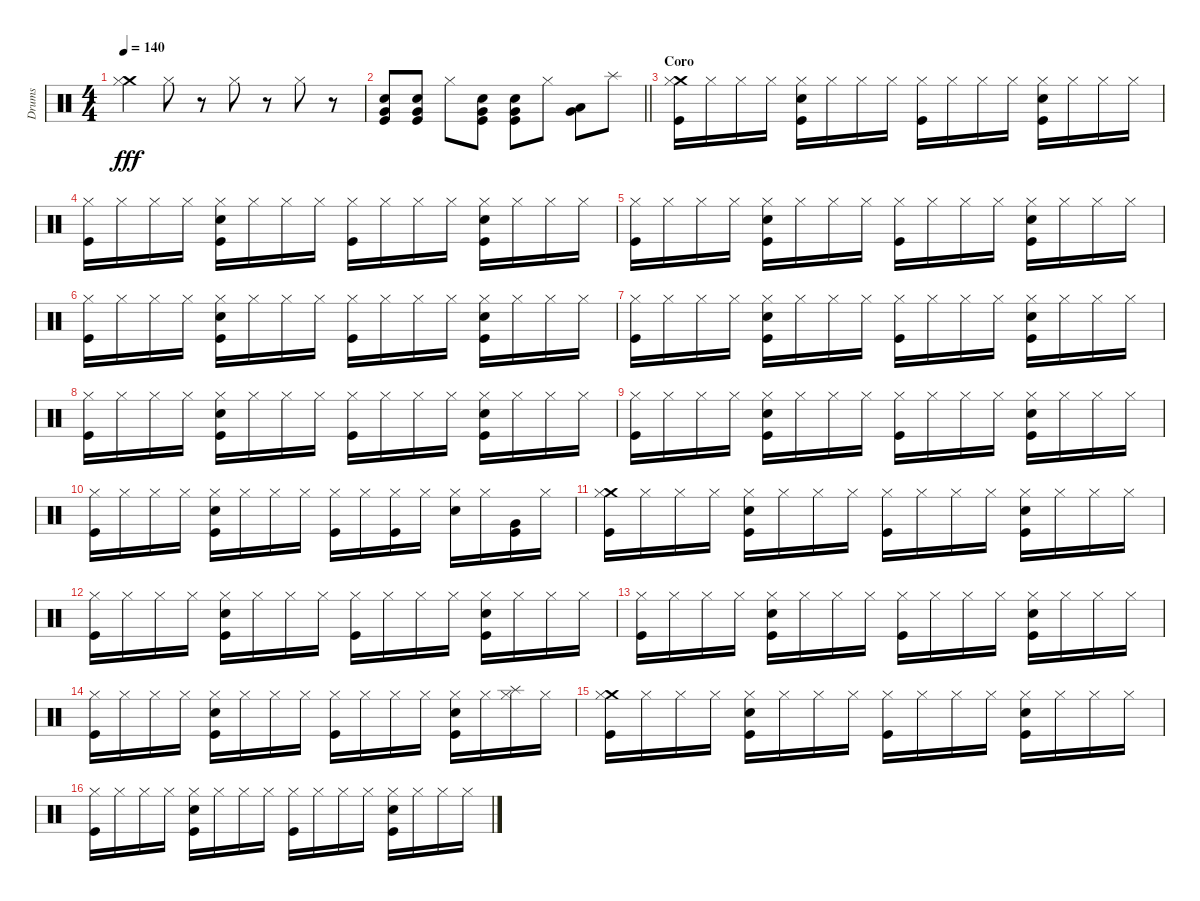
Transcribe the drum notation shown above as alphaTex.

\track ("Drums" "Drums") {instrument percussion}
\staff {score}
\articulation defaults
\ts (4 4)
\tempo 140
\clef neutral
\ks c
("Crash medium (hit)" "Hi-Hat (closed)").4{dy fff} "Hi-Hat (closed)".8 r.8 "Hi-Hat (closed)".8 r.8 "Hi-Hat (closed)".8 r.8 |
\barLineRight lightlight
("Very Low Tom (hit)" "Electric Snare (hit)" "Kick (hit)").8 ("Very Low Tom (hit)" "Electric Snare (hit)" "Kick (hit)").8 "Hi-Hat (closed)".8 ("Very Low Tom (hit)" "Electric Snare (hit)" "Kick (hit)").8 ("Very Low Tom (hit)" "Electric Snare (hit)" "Kick (hit)").8 "Hi-Hat (closed)".8 ("Low Tom (hit)" "Very Low Tom (hit)").8 "Splash (hit)".8 |
\section ("" "Coro")
("Crash medium (hit)" "Hi-Hat (closed)" "Kick (hit)").16 "Hi-Hat (closed)".16 "Hi-Hat (closed)".16 "Hi-Hat (closed)".16 ("Hi-Hat (closed)" "Electric Snare (hit)" "Kick (hit)").16 "Hi-Hat (closed)".16 "Hi-Hat (closed)".16 "Hi-Hat (closed)".16 ("Hi-Hat (closed)" "Kick (hit)").16 "Hi-Hat (closed)".16 "Hi-Hat (closed)".16 "Hi-Hat (closed)".16 ("Hi-Hat (closed)" "Electric Snare (hit)" "Kick (hit)").16 "Hi-Hat (closed)".16 "Hi-Hat (closed)".16 "Hi-Hat (closed)".16 |
("Hi-Hat (closed)" "Kick (hit)").16 "Hi-Hat (closed)".16 "Hi-Hat (closed)".16 "Hi-Hat (closed)".16 ("Hi-Hat (closed)" "Electric Snare (hit)" "Kick (hit)").16 "Hi-Hat (closed)".16 "Hi-Hat (closed)".16 "Hi-Hat (closed)".16 ("Hi-Hat (closed)" "Kick (hit)").16 "Hi-Hat (closed)".16 "Hi-Hat (closed)".16 "Hi-Hat (closed)".16 ("Hi-Hat (closed)" "Electric Snare (hit)" "Kick (hit)").16 "Hi-Hat (closed)".16 "Hi-Hat (closed)".16 "Hi-Hat (closed)".16 |
("Hi-Hat (closed)" "Kick (hit)").16 "Hi-Hat (closed)".16 "Hi-Hat (closed)".16 "Hi-Hat (closed)".16 ("Hi-Hat (closed)" "Electric Snare (hit)" "Kick (hit)").16 "Hi-Hat (closed)".16 "Hi-Hat (closed)".16 "Hi-Hat (closed)".16 ("Hi-Hat (closed)" "Kick (hit)").16 "Hi-Hat (closed)".16 "Hi-Hat (closed)".16 "Hi-Hat (closed)".16 ("Hi-Hat (closed)" "Electric Snare (hit)" "Kick (hit)").16 "Hi-Hat (closed)".16 "Hi-Hat (closed)".16 "Hi-Hat (closed)".16 |
("Hi-Hat (closed)" "Kick (hit)").16 "Hi-Hat (closed)".16 "Hi-Hat (closed)".16 "Hi-Hat (closed)".16 ("Hi-Hat (closed)" "Electric Snare (hit)" "Kick (hit)").16 "Hi-Hat (closed)".16 "Hi-Hat (closed)".16 "Hi-Hat (closed)".16 ("Hi-Hat (closed)" "Kick (hit)").16 "Hi-Hat (closed)".16 "Hi-Hat (closed)".16 "Hi-Hat (closed)".16 ("Hi-Hat (closed)" "Electric Snare (hit)" "Kick (hit)").16 "Hi-Hat (closed)".16 "Hi-Hat (closed)".16 "Hi-Hat (closed)".16 |
("Hi-Hat (closed)" "Kick (hit)").16 "Hi-Hat (closed)".16 "Hi-Hat (closed)".16 "Hi-Hat (closed)".16 ("Hi-Hat (closed)" "Electric Snare (hit)" "Kick (hit)").16 "Hi-Hat (closed)".16 "Hi-Hat (closed)".16 "Hi-Hat (closed)".16 ("Hi-Hat (closed)" "Kick (hit)").16 "Hi-Hat (closed)".16 "Hi-Hat (closed)".16 "Hi-Hat (closed)".16 ("Hi-Hat (closed)" "Electric Snare (hit)" "Kick (hit)").16 "Hi-Hat (closed)".16 "Hi-Hat (closed)".16 "Hi-Hat (closed)".16 |
("Hi-Hat (closed)" "Kick (hit)").16 "Hi-Hat (closed)".16 "Hi-Hat (closed)".16 "Hi-Hat (closed)".16 ("Hi-Hat (closed)" "Electric Snare (hit)" "Kick (hit)").16 "Hi-Hat (closed)".16 "Hi-Hat (closed)".16 "Hi-Hat (closed)".16 ("Hi-Hat (closed)" "Kick (hit)").16 "Hi-Hat (closed)".16 "Hi-Hat (closed)".16 "Hi-Hat (closed)".16 ("Hi-Hat (closed)" "Electric Snare (hit)" "Kick (hit)").16 "Hi-Hat (closed)".16 "Hi-Hat (closed)".16 "Hi-Hat (closed)".16 |
("Hi-Hat (closed)" "Kick (hit)").16 "Hi-Hat (closed)".16 "Hi-Hat (closed)".16 "Hi-Hat (closed)".16 ("Hi-Hat (closed)" "Electric Snare (hit)" "Kick (hit)").16 "Hi-Hat (closed)".16 "Hi-Hat (closed)".16 "Hi-Hat (closed)".16 ("Hi-Hat (closed)" "Kick (hit)").16 "Hi-Hat (closed)".16 "Hi-Hat (closed)".16 "Hi-Hat (closed)".16 ("Hi-Hat (closed)" "Electric Snare (hit)" "Kick (hit)").16 "Hi-Hat (closed)".16 "Hi-Hat (closed)".16 "Hi-Hat (closed)".16 |
("Hi-Hat (closed)" "Kick (hit)").16 "Hi-Hat (closed)".16 "Hi-Hat (closed)".16 "Hi-Hat (closed)".16 ("Hi-Hat (closed)" "Electric Snare (hit)" "Kick (hit)").16 "Hi-Hat (closed)".16 "Hi-Hat (closed)".16 "Hi-Hat (closed)".16 ("Hi-Hat (closed)" "Kick (hit)").16 "Hi-Hat (closed)".16 ("Hi-Hat (closed)" "Kick (hit)").16 "Hi-Hat (closed)".16 ("Hi-Hat (closed)" "Electric Snare (hit)").16 "Hi-Hat (closed)".16 ("Very Low Tom (hit)" "Kick (hit)").16 "Hi-Hat (closed)".16 |
("Crash medium (hit)" "Hi-Hat (closed)" "Kick (hit)").16 "Hi-Hat (closed)".16 "Hi-Hat (closed)".16 "Hi-Hat (closed)".16 ("Hi-Hat (closed)" "Electric Snare (hit)" "Kick (hit)").16 "Hi-Hat (closed)".16 "Hi-Hat (closed)".16 "Hi-Hat (closed)".16 ("Hi-Hat (closed)" "Kick (hit)").16 "Hi-Hat (closed)".16 "Hi-Hat (closed)".16 "Hi-Hat (closed)".16 ("Hi-Hat (closed)" "Electric Snare (hit)" "Kick (hit)").16 "Hi-Hat (closed)".16 "Hi-Hat (closed)".16 "Hi-Hat (closed)".16 |
("Hi-Hat (closed)" "Kick (hit)").16 "Hi-Hat (closed)".16 "Hi-Hat (closed)".16 "Hi-Hat (closed)".16 ("Hi-Hat (closed)" "Electric Snare (hit)" "Kick (hit)").16 "Hi-Hat (closed)".16 "Hi-Hat (closed)".16 "Hi-Hat (closed)".16 ("Hi-Hat (closed)" "Kick (hit)").16 "Hi-Hat (closed)".16 "Hi-Hat (closed)".16 "Hi-Hat (closed)".16 ("Hi-Hat (closed)" "Electric Snare (hit)" "Kick (hit)").16 "Hi-Hat (closed)".16 "Hi-Hat (closed)".16 "Hi-Hat (closed)".16 |
("Hi-Hat (closed)" "Kick (hit)").16 "Hi-Hat (closed)".16 "Hi-Hat (closed)".16 "Hi-Hat (closed)".16 ("Hi-Hat (closed)" "Electric Snare (hit)" "Kick (hit)").16 "Hi-Hat (closed)".16 "Hi-Hat (closed)".16 "Hi-Hat (closed)".16 ("Hi-Hat (closed)" "Kick (hit)").16 "Hi-Hat (closed)".16 "Hi-Hat (closed)".16 "Hi-Hat (closed)".16 ("Hi-Hat (closed)" "Electric Snare (hit)" "Kick (hit)").16 "Hi-Hat (closed)".16 "Hi-Hat (closed)".16 "Hi-Hat (closed)".16 |
("Hi-Hat (closed)" "Kick (hit)").16 "Hi-Hat (closed)".16 "Hi-Hat (closed)".16 "Hi-Hat (closed)".16 ("Hi-Hat (closed)" "Electric Snare (hit)" "Kick (hit)").16 "Hi-Hat (closed)".16 "Hi-Hat (closed)".16 "Hi-Hat (closed)".16 ("Hi-Hat (closed)" "Kick (hit)").16 "Hi-Hat (closed)".16 "Hi-Hat (closed)".16 "Hi-Hat (closed)".16 ("Hi-Hat (closed)" "Electric Snare (hit)" "Kick (hit)").16 "Hi-Hat (closed)".16 ("Splash (hit)" "Hi-Hat (closed)").16 "Hi-Hat (closed)".16 |
("Crash medium (hit)" "Hi-Hat (closed)" "Kick (hit)").16 "Hi-Hat (closed)".16 "Hi-Hat (closed)".16 "Hi-Hat (closed)".16 ("Hi-Hat (closed)" "Electric Snare (hit)" "Kick (hit)").16 "Hi-Hat (closed)".16 "Hi-Hat (closed)".16 "Hi-Hat (closed)".16 ("Hi-Hat (closed)" "Kick (hit)").16 "Hi-Hat (closed)".16 "Hi-Hat (closed)".16 "Hi-Hat (closed)".16 ("Hi-Hat (closed)" "Electric Snare (hit)" "Kick (hit)").16 "Hi-Hat (closed)".16 "Hi-Hat (closed)".16 "Hi-Hat (closed)".16 |
("Hi-Hat (closed)" "Kick (hit)").16 "Hi-Hat (closed)".16 "Hi-Hat (closed)".16 "Hi-Hat (closed)".16 ("Hi-Hat (closed)" "Electric Snare (hit)" "Kick (hit)").16 "Hi-Hat (closed)".16 "Hi-Hat (closed)".16 "Hi-Hat (closed)".16 ("Hi-Hat (closed)" "Kick (hit)").16 "Hi-Hat (closed)".16 "Hi-Hat (closed)".16 "Hi-Hat (closed)".16 ("Hi-Hat (closed)" "Electric Snare (hit)" "Kick (hit)").16 "Hi-Hat (closed)".16 "Hi-Hat (closed)".16 "Hi-Hat (closed)".16
